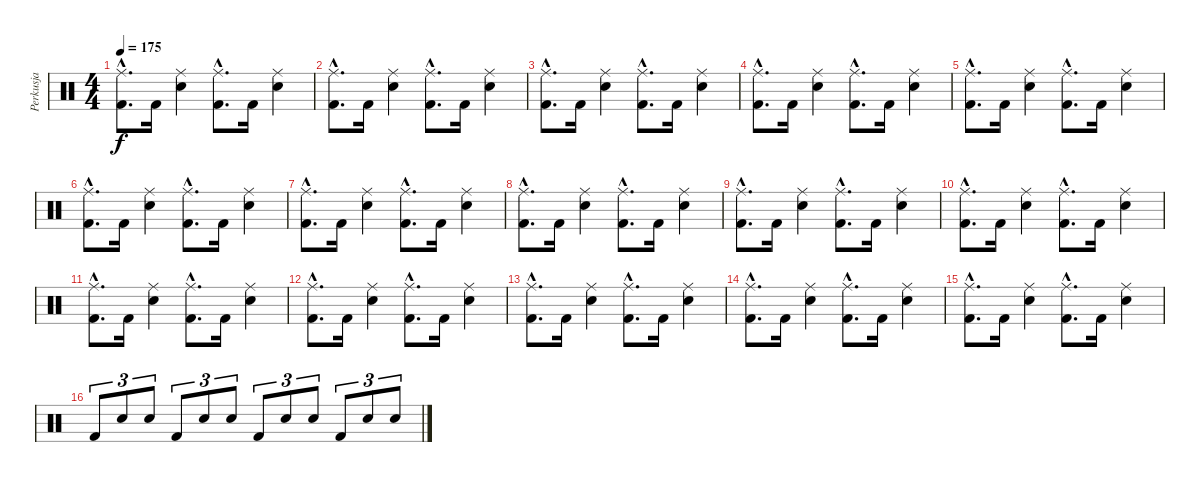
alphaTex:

\track ("Perkusja" "Perkusja") {instrument percussion}
\staff {score}
\articulation defaults
\ts (4 4)
\tempo 175
\clef neutral
\ks c
("Kick (hit) 2"{hac} "Ride (middle)"{hac}).8{d dy f} "Kick (hit) 2".16 ("Snare (hit) 2" "Ride (middle)").4 ("Kick (hit) 2"{hac} "Ride (middle)"{hac}).8{d} "Kick (hit) 2".16 ("Snare (hit) 2" "Ride (middle)").4 |
("Kick (hit) 2"{hac} "Ride (middle)"{hac}).8{d} "Kick (hit) 2".16 ("Snare (hit) 2" "Ride (middle)").4 ("Kick (hit) 2"{hac} "Ride (middle)"{hac}).8{d} "Kick (hit) 2".16 ("Snare (hit) 2" "Ride (middle)").4 |
("Kick (hit) 2"{hac} "Ride (middle)"{hac}).8{d} "Kick (hit) 2".16 ("Snare (hit) 2" "Ride (middle)").4 ("Kick (hit) 2"{hac} "Ride (middle)"{hac}).8{d} "Kick (hit) 2".16 ("Snare (hit) 2" "Ride (middle)").4 |
("Kick (hit) 2"{hac} "Ride (middle)"{hac}).8{d} "Kick (hit) 2".16 ("Snare (hit) 2" "Ride (middle)").4 ("Kick (hit) 2"{hac} "Ride (middle)"{hac}).8{d} "Kick (hit) 2".16 ("Snare (hit) 2" "Ride (middle)").4 |
("Kick (hit) 2"{hac} "Ride (middle)"{hac}).8{d} "Kick (hit) 2".16 ("Snare (hit) 2" "Ride (middle)").4 ("Kick (hit) 2"{hac} "Ride (middle)"{hac}).8{d} "Kick (hit) 2".16 ("Snare (hit) 2" "Ride (middle)").4 |
("Kick (hit) 2"{hac} "Ride (middle)"{hac}).8{d} "Kick (hit) 2".16 ("Snare (hit) 2" "Ride (middle)").4 ("Kick (hit) 2"{hac} "Ride (middle)"{hac}).8{d} "Kick (hit) 2".16 ("Snare (hit) 2" "Ride (middle)").4 |
("Kick (hit) 2"{hac} "Ride (middle)"{hac}).8{d} "Kick (hit) 2".16 ("Snare (hit) 2" "Ride (middle)").4 ("Kick (hit) 2"{hac} "Ride (middle)"{hac}).8{d} "Kick (hit) 2".16 ("Snare (hit) 2" "Ride (middle)").4 |
("Kick (hit) 2"{hac} "Ride (middle)"{hac}).8{d} "Kick (hit) 2".16 ("Snare (hit) 2" "Ride (middle)").4 ("Kick (hit) 2"{hac} "Ride (middle)"{hac}).8{d} "Kick (hit) 2".16 ("Snare (hit) 2" "Ride (middle)").4 |
("Kick (hit) 2"{hac} "Ride (middle)"{hac}).8{d} "Kick (hit) 2".16 ("Snare (hit) 2" "Ride (middle)").4 ("Kick (hit) 2"{hac} "Ride (middle)"{hac}).8{d} "Kick (hit) 2".16 ("Snare (hit) 2" "Ride (middle)").4 |
("Kick (hit) 2"{hac} "Ride (middle)"{hac}).8{d} "Kick (hit) 2".16 ("Snare (hit) 2" "Ride (middle)").4 ("Kick (hit) 2"{hac} "Ride (middle)"{hac}).8{d} "Kick (hit) 2".16 ("Snare (hit) 2" "Ride (middle)").4 |
("Kick (hit) 2"{hac} "Ride (middle)"{hac}).8{d} "Kick (hit) 2".16 ("Snare (hit) 2" "Ride (middle)").4 ("Kick (hit) 2"{hac} "Ride (middle)"{hac}).8{d} "Kick (hit) 2".16 ("Snare (hit) 2" "Ride (middle)").4 |
("Kick (hit) 2"{hac} "Ride (middle)"{hac}).8{d} "Kick (hit) 2".16 ("Snare (hit) 2" "Ride (middle)").4 ("Kick (hit) 2"{hac} "Ride (middle)"{hac}).8{d} "Kick (hit) 2".16 ("Snare (hit) 2" "Ride (middle)").4 |
("Kick (hit) 2"{hac} "Ride (middle)"{hac}).8{d} "Kick (hit) 2".16 ("Snare (hit) 2" "Ride (middle)").4 ("Kick (hit) 2"{hac} "Ride (middle)"{hac}).8{d} "Kick (hit) 2".16 ("Snare (hit) 2" "Ride (middle)").4 |
("Kick (hit) 2"{hac} "Ride (middle)"{hac}).8{d} "Kick (hit) 2".16 ("Snare (hit) 2" "Ride (middle)").4 ("Kick (hit) 2"{hac} "Ride (middle)"{hac}).8{d} "Kick (hit) 2".16 ("Snare (hit) 2" "Ride (middle)").4 |
("Kick (hit) 2"{hac} "Ride (middle)"{hac}).8{d} "Kick (hit) 2".16 ("Snare (hit) 2" "Ride (middle)").4 ("Kick (hit) 2"{hac} "Ride (middle)"{hac}).8{d} "Kick (hit) 2".16 ("Snare (hit) 2" "Ride (middle)").4 |
"Kick (hit) 2".8{tu (3 2)} "Snare (hit) 2".8{tu (3 2)} "Snare (hit) 2".8{tu (3 2)} "Kick (hit) 2".8{tu (3 2)} "Snare (hit) 2".8{tu (3 2)} "Snare (hit) 2".8{tu (3 2)} "Kick (hit) 2".8{tu (3 2)} "Snare (hit) 2".8{tu (3 2)} "Snare (hit) 2".8{tu (3 2)} "Kick (hit) 2".8{tu (3 2)} "Snare (hit) 2".8{tu (3 2)} "Snare (hit) 2".8{tu (3 2)}
